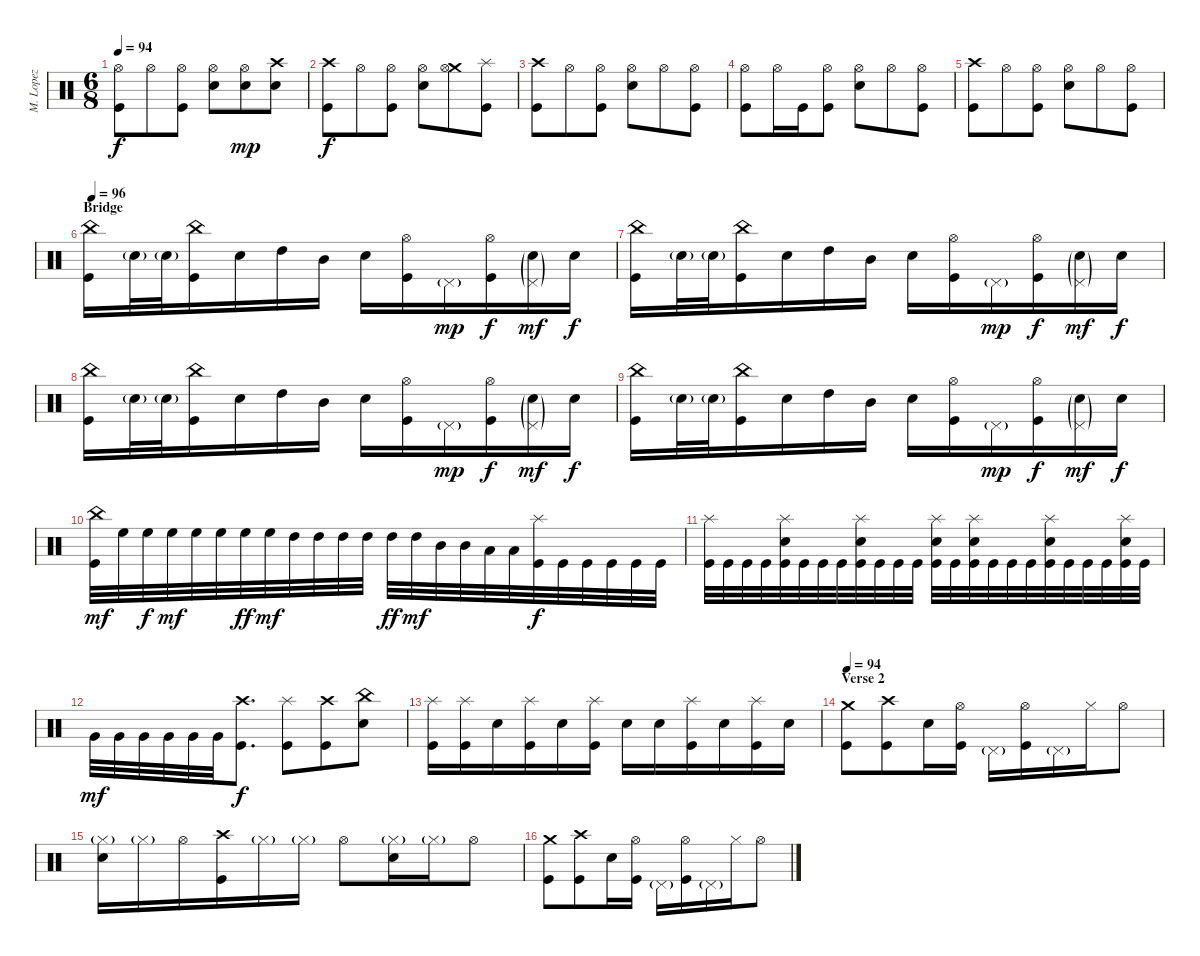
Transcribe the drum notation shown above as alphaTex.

\track ("M. Lopez" "M. Lopez") {instrument percussion}
\staff {score}
\articulation defaults
\ts (6 8)
\tempo 94
\clef neutral
\ks c
("Hi-Hat (open)" "Kick (hit)").8{dy f} "Hi-Hat (open)".8 ("Hi-Hat (open)" "Kick (hit)").8 ("Hi-Hat (open)" "Electric Snare (hit)").8 ("Hi-Hat (open)" "Electric Snare (hit)").8{dy mp} ("Crash high (hit)" "Electric Snare (hit)").8 |
("Crash high (hit)" "Kick (hit)").8{dy f} "Hi-Hat (open)".8 ("Hi-Hat (open)" "Kick (hit)").8 ("Hi-Hat (open)" "Electric Snare (hit)").8 ("Crash medium (hit)" "Hi-Hat (open)").8 ("Splash (hit)" "Kick (hit)").8 |
("Crash high (hit)" "Kick (hit)").8 "Hi-Hat (open)".8 ("Hi-Hat (open)" "Kick (hit)").8 ("Hi-Hat (open)" "Electric Snare (hit)").8 "Hi-Hat (open)".8 ("Hi-Hat (open)" "Kick (hit)").8 |
("Hi-Hat (open)" "Kick (hit)").8 "Hi-Hat (open)".16 "Kick (hit)".16 ("Hi-Hat (open)" "Kick (hit)").8 ("Hi-Hat (open)" "Electric Snare (hit)").8 "Hi-Hat (open)".8 ("Hi-Hat (open)" "Kick (hit)").8 |
("Crash high (hit)" "Kick (hit)").8 "Hi-Hat (open)".8 ("Hi-Hat (open)" "Kick (hit)").8 ("Hi-Hat (open)" "Electric Snare (hit)").8 "Hi-Hat (open)".8 ("Hi-Hat (open)" "Kick (hit)").8 |
\section ("" "Bridge")
\tempo 96
("China (hit)" "Kick (hit)").16 "Electric Snare (hit)"{g}.32 "Electric Snare (hit)"{g}.32 ("China (hit)" "Kick (hit)").16 "Electric Snare (hit)".16 "High Tom (hit)".16 "Mid Tom (hit)".16 "Electric Snare (hit)".16 ("Hi-Hat (open)" "Kick (hit)").16 "Pedal Hi-Hat (hit)"{g}.16{dy mp} ("Hi-Hat (open)" "Kick (hit)").16{dy f} ("Pedal Hi-Hat (hit)"{g} "Electric Snare (hit)"{g}).16{dy mf} "Electric Snare (hit)".16{dy f} |
("China (hit)" "Kick (hit)").16 "Electric Snare (hit)"{g}.32 "Electric Snare (hit)"{g}.32 ("China (hit)" "Kick (hit)").16 "Electric Snare (hit)".16 "High Tom (hit)".16 "Mid Tom (hit)".16 "Electric Snare (hit)".16 ("Hi-Hat (open)" "Kick (hit)").16 "Pedal Hi-Hat (hit)"{g}.16{dy mp} ("Hi-Hat (open)" "Kick (hit)").16{dy f} ("Pedal Hi-Hat (hit)"{g} "Electric Snare (hit)"{g}).16{dy mf} "Electric Snare (hit)".16{dy f} |
("China (hit)" "Kick (hit)").16 "Electric Snare (hit)"{g}.32 "Electric Snare (hit)"{g}.32 ("China (hit)" "Kick (hit)").16 "Electric Snare (hit)".16 "High Tom (hit)".16 "Mid Tom (hit)".16 "Electric Snare (hit)".16 ("Hi-Hat (open)" "Kick (hit)").16 "Pedal Hi-Hat (hit)"{g}.16{dy mp} ("Hi-Hat (open)" "Kick (hit)").16{dy f} ("Pedal Hi-Hat (hit)"{g} "Electric Snare (hit)"{g}).16{dy mf} "Electric Snare (hit)".16{dy f} |
("China (hit)" "Kick (hit)").16 "Electric Snare (hit)"{g}.32 "Electric Snare (hit)"{g}.32 ("China (hit)" "Kick (hit)").16 "Electric Snare (hit)".16 "High Tom (hit)".16 "Mid Tom (hit)".16 "Electric Snare (hit)".16 ("Hi-Hat (open)" "Kick (hit)").16 "Pedal Hi-Hat (hit)"{g}.16{dy mp} ("Hi-Hat (open)" "Kick (hit)").16{dy f} ("Pedal Hi-Hat (hit)"{g} "Electric Snare (hit)"{g}).16{dy mf} "Electric Snare (hit)".16{dy f} |
("China (hit)" "Kick (hit)").32{dy mf} "High Floor Tom (hit)".32 "High Floor Tom (hit)".32{dy f} "High Floor Tom (hit)".32{dy mf} "High Floor Tom (hit)".32 "High Floor Tom (hit)".32 "High Floor Tom (hit)".32{dy ff} "High Floor Tom (hit)".32{dy mf} "High Tom (hit)".32 "High Tom (hit)".32 "High Tom (hit)".32 "High Tom (hit)".32 "High Tom (hit)".32{dy ff} "High Tom (hit)".32{dy mf} "Mid Tom (hit)".32 "Mid Tom (hit)".32 "Low Tom (hit)".32 "Low Tom (hit)".32 ("Splash (hit)" "Kick (hit)").32{dy f} "Kick (hit)".32 "Kick (hit)".32 "Kick (hit)".32 "Kick (hit)".32 "Kick (hit)".32 |
("Splash (hit)" "Kick (hit)").32 "Kick (hit)".32 "Kick (hit)".32 "Kick (hit)".32 ("Splash (hit)" "Electric Snare (hit)" "Kick (hit)").32 "Kick (hit)".32 "Kick (hit)".32 "Kick (hit)".32 ("Splash (hit)" "Electric Snare (hit)" "Kick (hit)").32 "Kick (hit)".32 "Kick (hit)".32 "Kick (hit)".32 ("Splash (hit)" "Electric Snare (hit)" "Kick (hit)").32 "Kick (hit)".32 ("Splash (hit)" "Electric Snare (hit)" "Kick (hit)").32 "Kick (hit)".32 "Kick (hit)".32 "Kick (hit)".32 ("Splash (hit)" "Electric Snare (hit)" "Kick (hit)").32 "Kick (hit)".32 "Kick (hit)".32 "Kick (hit)".32 ("Splash (hit)" "Electric Snare (hit)" "Kick (hit)").32 "Kick (hit)".32 |
"Very Low Tom (hit)".32{dy mf} "Very Low Tom (hit)".32 "Very Low Tom (hit)".32 "Very Low Tom (hit)".32 "Very Low Tom (hit)".32 "Very Low Tom (hit)".32 ("Crash high (hit)" "Kick (hit)").8{d dy f} ("Splash (hit)" "Kick (hit)").8 ("Crash high (hit)" "Kick (hit)").8 ("China (hit)" "Electric Snare (hit)").8 |
("Splash (hit)" "Kick (hit)").16 ("Splash (hit)" "Kick (hit)").16 "Electric Snare (hit)".16 ("Splash (hit)" "Kick (hit)").16 "Electric Snare (hit)".16 ("Splash (hit)" "Kick (hit)").16 "Electric Snare (hit)".16 "Electric Snare (hit)".16 ("Splash (hit)" "Kick (hit)").16 "Electric Snare (hit)".16 ("Splash (hit)" "Kick (hit)").16 "Electric Snare (hit)".16 |
\section ("" "Verse 2")
\tempo 94
("Crash medium (hit)" "Kick (hit)").8 ("Crash high (hit)" "Kick (hit)").8 "Electric Snare (hit)".16 ("Hi-Hat (open)" "Kick (hit)").16 "Pedal Hi-Hat (hit)"{g}.16 ("Hi-Hat (open)" "Kick (hit)").16 "Pedal Hi-Hat (hit)"{g}.16 "Hi-Hat (closed)".16 "Hi-Hat (open)".8 |
("Hi-Hat (closed)"{g} "Electric Snare (hit)").16 "Hi-Hat (closed)"{g}.16 "Hi-Hat (open)".16 ("Crash high (hit)" "Kick (hit)").16 "Hi-Hat (closed)"{g}.16 "Hi-Hat (closed)"{g}.16 "Hi-Hat (open)".8 ("Hi-Hat (closed)"{g} "Electric Snare (hit)").16 "Hi-Hat (closed)"{g}.16 "Hi-Hat (open)".8 |
("Crash medium (hit)" "Kick (hit)").8 ("Crash high (hit)" "Kick (hit)").8 "Electric Snare (hit)".16 ("Hi-Hat (open)" "Kick (hit)").16 "Pedal Hi-Hat (hit)"{g}.16 ("Hi-Hat (open)" "Kick (hit)").16 "Pedal Hi-Hat (hit)"{g}.16 "Hi-Hat (closed)".16 "Hi-Hat (open)".8
